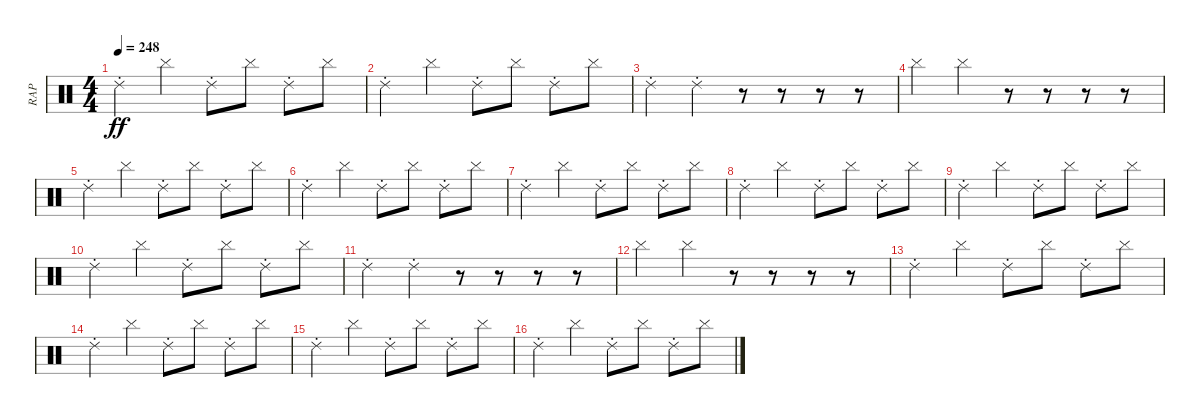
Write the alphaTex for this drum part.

\track ("RAP" "RAP") {instrument percussion}
\staff {score}
\articulation defaults
\ts (4 4)
\tempo 248
\clef neutral
\ks c "Ride (choke) 2".4{dy ff} "Cymbal (hit)".4 "Ride (choke) 2".8 "Cymbal (hit)".8 "Ride (choke) 2".8 "Cymbal (hit)".8
|
"Ride (choke) 2".4 "Cymbal (hit)".4 "Ride (choke) 2".8 "Cymbal (hit)".8 "Ride (choke) 2".8 "Cymbal (hit)".8 |
"Ride (choke) 2".4 "Ride (choke) 2".4 r.8 r.8 r.8 r.8 |
"Cymbal (hit)".4 "Cymbal (hit)".4 r.8 r.8 r.8 r.8 |
"Ride (choke) 2".4 "Cymbal (hit)".4 "Ride (choke) 2".8 "Cymbal (hit)".8 "Ride (choke) 2".8 "Cymbal (hit)".8 |
"Ride (choke) 2".4 "Cymbal (hit)".4 "Ride (choke) 2".8 "Cymbal (hit)".8 "Ride (choke) 2".8 "Cymbal (hit)".8 |
"Ride (choke) 2".4 "Cymbal (hit)".4 "Ride (choke) 2".8 "Cymbal (hit)".8 "Ride (choke) 2".8 "Cymbal (hit)".8 |
"Ride (choke) 2".4 "Cymbal (hit)".4 "Ride (choke) 2".8 "Cymbal (hit)".8 "Ride (choke) 2".8 "Cymbal (hit)".8 |
"Ride (choke) 2".4 "Cymbal (hit)".4 "Ride (choke) 2".8 "Cymbal (hit)".8 "Ride (choke) 2".8 "Cymbal (hit)".8 |
"Ride (choke) 2".4 "Cymbal (hit)".4 "Ride (choke) 2".8 "Cymbal (hit)".8 "Ride (choke) 2".8 "Cymbal (hit)".8 |
"Ride (choke) 2".4 "Ride (choke) 2".4 r.8 r.8 r.8 r.8 |
"Cymbal (hit)".4 "Cymbal (hit)".4 r.8 r.8 r.8 r.8 |
"Ride (choke) 2".4 "Cymbal (hit)".4 "Ride (choke) 2".8 "Cymbal (hit)".8 "Ride (choke) 2".8 "Cymbal (hit)".8 |
"Ride (choke) 2".4 "Cymbal (hit)".4 "Ride (choke) 2".8 "Cymbal (hit)".8 "Ride (choke) 2".8 "Cymbal (hit)".8 |
"Ride (choke) 2".4 "Cymbal (hit)".4 "Ride (choke) 2".8 "Cymbal (hit)".8 "Ride (choke) 2".8 "Cymbal (hit)".8 |
"Ride (choke) 2".4 "Cymbal (hit)".4 "Ride (choke) 2".8 "Cymbal (hit)".8 "Ride (choke) 2".8 "Cymbal (hit)".8
